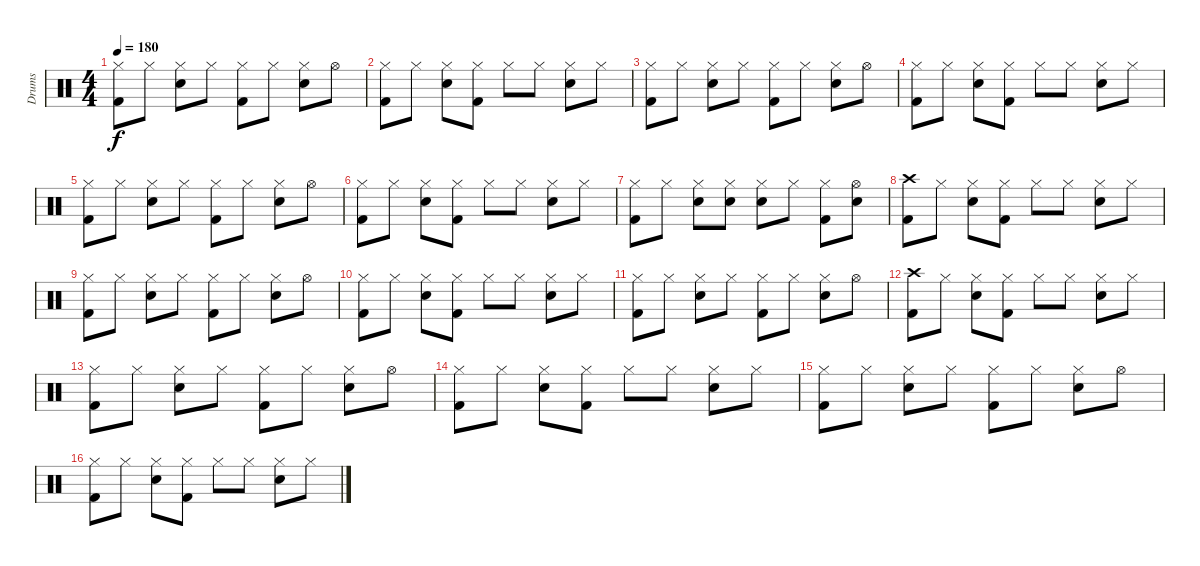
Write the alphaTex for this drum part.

\track ("Drums" "Drums") {instrument percussion}
\staff {score}
\articulation defaults
\ts (4 4)
\tempo 180
\clef neutral
\ks c
("Hi-Hat (closed)" "Kick (hit) 2").8{dy f} "Hi-Hat (closed)".8 ("Hi-Hat (closed)" "Snare (hit) 2").8 "Hi-Hat (closed)".8 ("Hi-Hat (closed)" "Kick (hit) 2").8 "Hi-Hat (closed)".8 ("Hi-Hat (closed)" "Snare (hit) 2").8 "Hi-Hat (open)".8 |
("Hi-Hat (closed)" "Kick (hit) 2").8 "Hi-Hat (closed)".8 ("Hi-Hat (closed)" "Snare (hit) 2").8 ("Hi-Hat (closed)" "Kick (hit) 2").8 "Hi-Hat (closed)".8 "Hi-Hat (closed)".8 ("Hi-Hat (closed)" "Snare (hit) 2").8 "Hi-Hat (closed)".8 |
("Hi-Hat (closed)" "Kick (hit) 2").8 "Hi-Hat (closed)".8 ("Hi-Hat (closed)" "Snare (hit) 2").8 "Hi-Hat (closed)".8 ("Hi-Hat (closed)" "Kick (hit) 2").8 "Hi-Hat (closed)".8 ("Hi-Hat (closed)" "Snare (hit) 2").8 "Hi-Hat (open)".8 |
("Hi-Hat (closed)" "Kick (hit) 2").8 "Hi-Hat (closed)".8 ("Hi-Hat (closed)" "Snare (hit) 2").8 ("Hi-Hat (closed)" "Kick (hit) 2").8 "Hi-Hat (closed)".8 "Hi-Hat (closed)".8 ("Hi-Hat (closed)" "Snare (hit) 2").8 "Hi-Hat (closed)".8 |
("Hi-Hat (closed)" "Kick (hit) 2").8 "Hi-Hat (closed)".8 ("Hi-Hat (closed)" "Snare (hit) 2").8 "Hi-Hat (closed)".8 ("Hi-Hat (closed)" "Kick (hit) 2").8 "Hi-Hat (closed)".8 ("Hi-Hat (closed)" "Snare (hit) 2").8 "Hi-Hat (open)".8 |
("Hi-Hat (closed)" "Kick (hit) 2").8 "Hi-Hat (closed)".8 ("Hi-Hat (closed)" "Snare (hit) 2").8 ("Hi-Hat (closed)" "Kick (hit) 2").8 "Hi-Hat (closed)".8 "Hi-Hat (closed)".8 ("Hi-Hat (closed)" "Snare (hit) 2").8 "Hi-Hat (closed)".8 |
("Hi-Hat (closed)" "Kick (hit) 2").8 "Hi-Hat (closed)".8 ("Hi-Hat (closed)" "Snare (hit) 2").8 ("Hi-Hat (closed)" "Snare (hit) 2").8 ("Hi-Hat (closed)" "Snare (hit) 2").8 "Hi-Hat (closed)".8 ("Hi-Hat (closed)" "Kick (hit) 2").8 ("Hi-Hat (open)" "Snare (hit) 2").8 |
("Crash high (hit)" "Kick (hit) 2").8 "Hi-Hat (closed)".8 ("Hi-Hat (closed)" "Snare (hit) 2").8 ("Hi-Hat (closed)" "Kick (hit) 2").8 "Hi-Hat (closed)".8 "Hi-Hat (closed)".8 ("Hi-Hat (closed)" "Snare (hit) 2").8 "Hi-Hat (closed)".8 |
("Hi-Hat (closed)" "Kick (hit) 2").8 "Hi-Hat (closed)".8 ("Hi-Hat (closed)" "Snare (hit) 2").8 "Hi-Hat (closed)".8 ("Hi-Hat (closed)" "Kick (hit) 2").8 "Hi-Hat (closed)".8 ("Hi-Hat (closed)" "Snare (hit) 2").8 "Hi-Hat (open)".8 |
("Hi-Hat (closed)" "Kick (hit) 2").8 "Hi-Hat (closed)".8 ("Hi-Hat (closed)" "Snare (hit) 2").8 ("Hi-Hat (closed)" "Kick (hit) 2").8 "Hi-Hat (closed)".8 "Hi-Hat (closed)".8 ("Hi-Hat (closed)" "Snare (hit) 2").8 "Hi-Hat (closed)".8 |
("Hi-Hat (closed)" "Kick (hit) 2").8 "Hi-Hat (closed)".8 ("Hi-Hat (closed)" "Snare (hit) 2").8 "Hi-Hat (closed)".8 ("Hi-Hat (closed)" "Kick (hit) 2").8 "Hi-Hat (closed)".8 ("Hi-Hat (closed)" "Snare (hit) 2").8 "Hi-Hat (open)".8 |
("Crash high (hit)" "Kick (hit) 2").8 "Hi-Hat (closed)".8 ("Hi-Hat (closed)" "Snare (hit) 2").8 ("Hi-Hat (closed)" "Kick (hit) 2").8 "Hi-Hat (closed)".8 "Hi-Hat (closed)".8 ("Hi-Hat (closed)" "Snare (hit) 2").8 "Hi-Hat (closed)".8 |
("Hi-Hat (closed)" "Kick (hit) 2").8 "Hi-Hat (closed)".8 ("Hi-Hat (closed)" "Snare (hit) 2").8 "Hi-Hat (closed)".8 ("Hi-Hat (closed)" "Kick (hit) 2").8 "Hi-Hat (closed)".8 ("Hi-Hat (closed)" "Snare (hit) 2").8 "Hi-Hat (open)".8 |
("Hi-Hat (closed)" "Kick (hit) 2").8 "Hi-Hat (closed)".8 ("Hi-Hat (closed)" "Snare (hit) 2").8 ("Hi-Hat (closed)" "Kick (hit) 2").8 "Hi-Hat (closed)".8 "Hi-Hat (closed)".8 ("Hi-Hat (closed)" "Snare (hit) 2").8 "Hi-Hat (closed)".8 |
("Hi-Hat (closed)" "Kick (hit) 2").8 "Hi-Hat (closed)".8 ("Hi-Hat (closed)" "Snare (hit) 2").8 "Hi-Hat (closed)".8 ("Hi-Hat (closed)" "Kick (hit) 2").8 "Hi-Hat (closed)".8 ("Hi-Hat (closed)" "Snare (hit) 2").8 "Hi-Hat (open)".8 |
("Hi-Hat (closed)" "Kick (hit) 2").8 "Hi-Hat (closed)".8 ("Hi-Hat (closed)" "Snare (hit) 2").8 ("Hi-Hat (closed)" "Kick (hit) 2").8 "Hi-Hat (closed)".8 "Hi-Hat (closed)".8 ("Hi-Hat (closed)" "Snare (hit) 2").8 "Hi-Hat (closed)".8
